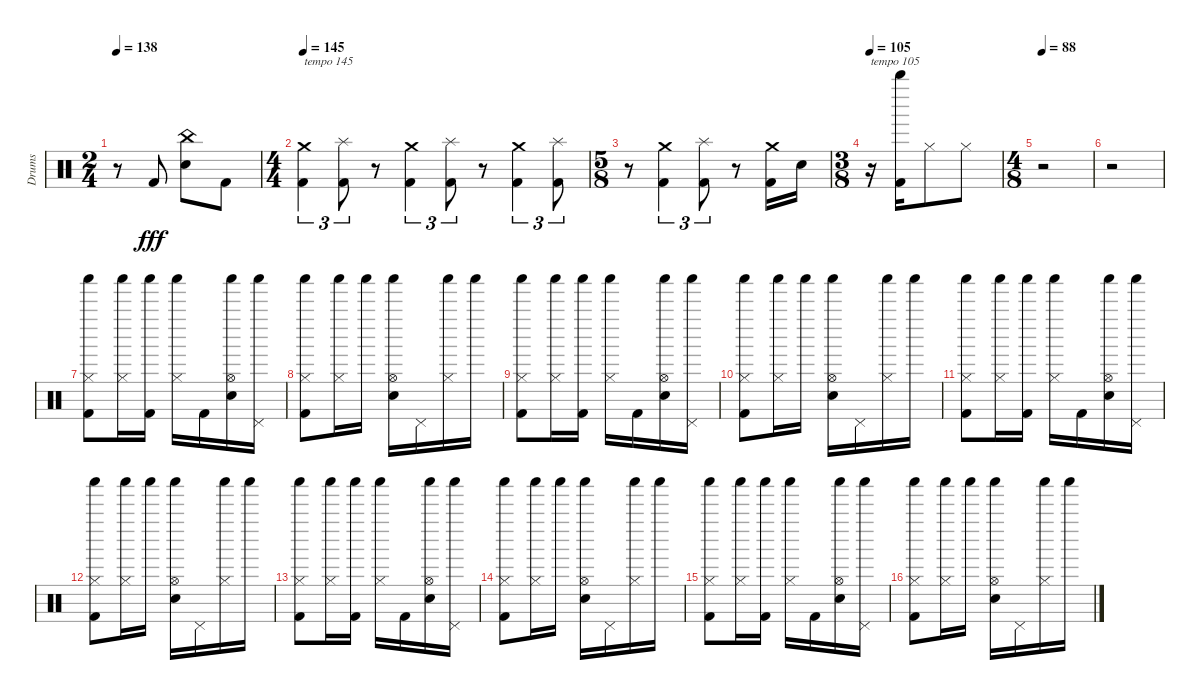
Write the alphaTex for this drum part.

\track ("Drums" "Drums") {instrument percussion}
\staff {score}
\articulation defaults
\ts (2 4)
\tempo 138
\clef neutral
\ks c
r.8{dy fff} "Kick (hit) 2".8 ("China (hit)" "Snare (hit) 2").8 "Kick (hit) 2".8 |
\ts (4 4)
\tempo 145
("Crash medium (hit)" "Kick (hit) 2").4{tu (3 2) txt "tempo 145"} ("Splash (hit)" "Kick (hit) 2").8{tu (3 2)} r.8 ("Crash medium (hit)" "Kick (hit) 2").4{tu (3 2)} ("Splash (hit)" "Kick (hit) 2").8{tu (3 2)} r.8 ("Crash medium (hit)" "Kick (hit) 2").4{tu (3 2)} ("Splash (hit)" "Kick (hit) 2").8{tu (3 2)} |
\ts (5 8)
r.8 ("Crash medium (hit)" "Kick (hit) 2").4{tu (3 2)} ("Splash (hit)" "Kick (hit) 2").8{tu (3 2)} r.8 ("Crash medium (hit)" "Kick (hit) 2").16 "Snare (hit) 2".16 |
\ts (3 8)
\tempo 105
r.16{txt "tempo 105"} ("Whistle high (hit)" "Kick (hit) 2").16 "Hi-Hat (closed)".8 "Hi-Hat (closed)".8 |
\ts (4 8)
\tempo 88
r.2 |
r.2{volume 0} |
("Hi-Hat (closed)" "Shaker (hit)" "Kick (hit) 2").8{volume 8} ("Hi-Hat (closed)" "Shaker (hit)").16 ("Shaker (hit)" "Kick (hit) 2").16 ("Hi-Hat (closed)" "Shaker (hit)").16 "Kick (hit) 2".16 ("Hi-Hat (open)" "Shaker (hit)" "Snare (hit) 2").16 ("Pedal Hi-Hat (hit)" "Shaker (hit)").16 |
("Hi-Hat (closed)" "Shaker (hit)" "Kick (hit) 2").8 ("Hi-Hat (closed)" "Shaker (hit)").16 "Shaker (hit)".16 ("Hi-Hat (open)" "Shaker (hit)" "Snare (hit) 2").16 "Pedal Hi-Hat (hit)".16 ("Hi-Hat (closed)" "Shaker (hit)").16 "Shaker (hit)".16 |
("Hi-Hat (closed)" "Shaker (hit)" "Kick (hit) 2").8{volume 16} ("Hi-Hat (closed)" "Shaker (hit)").16 ("Shaker (hit)" "Kick (hit) 2").16 ("Hi-Hat (closed)" "Shaker (hit)").16 "Kick (hit) 2".16 ("Hi-Hat (open)" "Shaker (hit)" "Snare (hit) 2").16 ("Pedal Hi-Hat (hit)" "Shaker (hit)").16 |
("Hi-Hat (closed)" "Shaker (hit)" "Kick (hit) 2").8 ("Hi-Hat (closed)" "Shaker (hit)").16 "Shaker (hit)".16 ("Hi-Hat (open)" "Shaker (hit)" "Snare (hit) 2").16 "Pedal Hi-Hat (hit)".16 ("Hi-Hat (closed)" "Shaker (hit)").16 "Shaker (hit)".16 |
("Hi-Hat (closed)" "Shaker (hit)" "Kick (hit) 2").8 ("Hi-Hat (closed)" "Shaker (hit)").16 ("Shaker (hit)" "Kick (hit) 2").16 ("Hi-Hat (closed)" "Shaker (hit)").16 "Kick (hit) 2".16 ("Hi-Hat (open)" "Shaker (hit)" "Snare (hit) 2").16 ("Pedal Hi-Hat (hit)" "Shaker (hit)").16 |
("Hi-Hat (closed)" "Shaker (hit)" "Kick (hit) 2").8 ("Hi-Hat (closed)" "Shaker (hit)").16 "Shaker (hit)".16 ("Hi-Hat (open)" "Shaker (hit)" "Snare (hit) 2").16 "Pedal Hi-Hat (hit)".16 ("Hi-Hat (closed)" "Shaker (hit)").16 "Shaker (hit)".16 |
("Hi-Hat (closed)" "Shaker (hit)" "Kick (hit) 2").8 ("Hi-Hat (closed)" "Shaker (hit)").16 ("Shaker (hit)" "Kick (hit) 2").16 ("Hi-Hat (closed)" "Shaker (hit)").16 "Kick (hit) 2".16 ("Hi-Hat (open)" "Shaker (hit)" "Snare (hit) 2").16 ("Pedal Hi-Hat (hit)" "Shaker (hit)").16 |
("Hi-Hat (closed)" "Shaker (hit)" "Kick (hit) 2").8 ("Hi-Hat (closed)" "Shaker (hit)").16 "Shaker (hit)".16 ("Hi-Hat (open)" "Shaker (hit)" "Snare (hit) 2").16 "Pedal Hi-Hat (hit)".16 ("Hi-Hat (closed)" "Shaker (hit)").16 "Shaker (hit)".16 |
("Hi-Hat (closed)" "Shaker (hit)" "Kick (hit) 2").8 ("Hi-Hat (closed)" "Shaker (hit)").16 ("Shaker (hit)" "Kick (hit) 2").16 ("Hi-Hat (closed)" "Shaker (hit)").16 "Kick (hit) 2".16 ("Hi-Hat (open)" "Shaker (hit)" "Snare (hit) 2").16 ("Pedal Hi-Hat (hit)" "Shaker (hit)").16 |
("Hi-Hat (closed)" "Shaker (hit)" "Kick (hit) 2").8 ("Hi-Hat (closed)" "Shaker (hit)").16 "Shaker (hit)".16 ("Hi-Hat (open)" "Shaker (hit)" "Snare (hit) 2").16 "Pedal Hi-Hat (hit)".16 ("Hi-Hat (closed)" "Shaker (hit)").16 "Shaker (hit)".16
